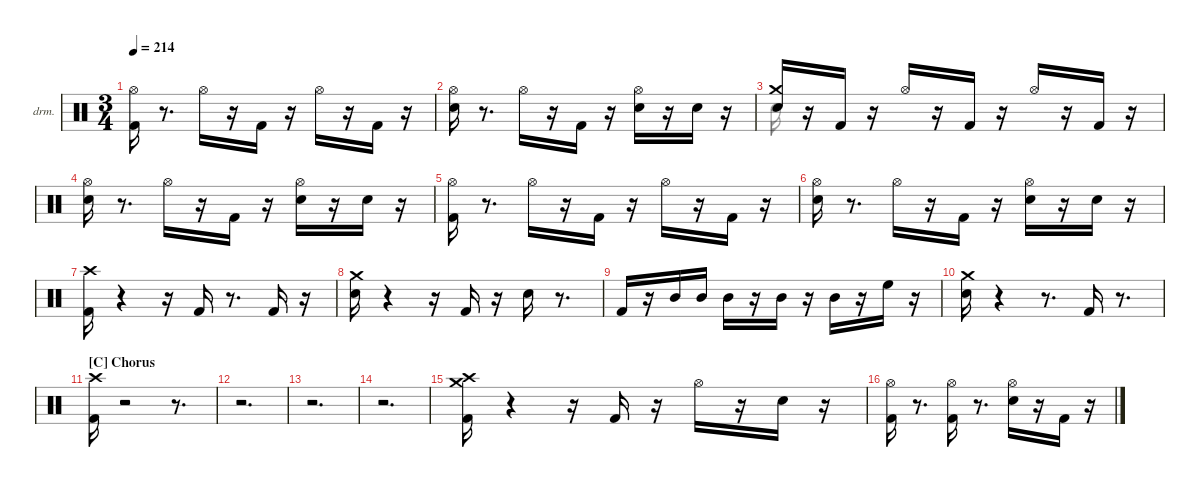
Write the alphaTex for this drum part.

\hideDynamics
\bracketExtendMode nobrackets
\firstSystemTrackNameOrientation horizontal
\track ("EZdrummer 3" "drm.") {instrument percussion}
\staff {score}
\articulation defaults
\voice
\ts (3 4)
\tempo 214
\clef neutral
\ks aminor
("Kick (hit) 2" "Hi-Hat (open)"{acc #}).16{dy ff} r.8{d} "Hi-Hat (open)"{acc #}.16{dy mf} r.16 "Kick (hit) 2".16{dy p} r.16 "Hi-Hat (open)"{acc #}.16{dy mp} r.16 "Kick (hit) 2".16{dy mf} r.16 |
("Snare (hit) 2" "Hi-Hat (open)"{acc #}).16 r.8{d} "Hi-Hat (open)"{acc #}.16{dy mp} r.16 "Kick (hit) 2".16{dy f} r.16 ("Snare (hit) 2" "Hi-Hat (open)"{acc #}).16{dy mp} r.16 "Snare (hit) 2".16{dy pp} r.16 |
("Snare (hit) 2" "Crash medium (hit)").16{dy f} r.16 "Kick (hit) 2".16 r.16 "Hi-Hat (open)"{acc #}.16{dy mf} r.16 "Kick (hit) 2".16{dy p} r.16 "Hi-Hat (open)"{acc #}.16{dy mp} r.16 "Kick (hit) 2".16{dy mf} r.16 |
("Snare (hit) 2" "Hi-Hat (open)"{acc #}).16{dy ff} r.8{d} "Hi-Hat (open)"{acc #}.16{dy mf} r.16 "Kick (hit) 2".16{dy f} r.16 ("Snare (hit) 2" "Hi-Hat (open)"{acc #}).16{dy mp} r.16 "Snare (hit) 2".16{dy pp} r.16 |
("Kick (hit) 2" "Hi-Hat (open)"{acc #}).16{dy ff} r.8{d} "Hi-Hat (open)"{acc #}.16{dy mf} r.16 "Kick (hit) 2".16{dy p} r.16 "Hi-Hat (open)"{acc #}.16{dy mp} r.16 "Kick (hit) 2".16{dy mf} r.16 |
("Snare (hit) 2" "Hi-Hat (open)"{acc #}).16 r.8{d} "Hi-Hat (open)"{acc #}.16{dy mp} r.16 "Kick (hit) 2".16{dy f} r.16 ("Snare (hit) 2" "Hi-Hat (open)"{acc #}).16{dy mp} r.16 "Snare (hit) 2".16{dy pp} r.16 |
("Kick (hit) 2" "Crash high (hit)"{acc #}).16{dy ff} r.4 r.16 "Kick (hit) 2".16{dy mf} r.8{d} "Kick (hit) 2".16{dy f} r.16 |
("Snare (hit) 2" "Crash medium (hit)").16 r.4 r.16 "Kick (hit) 2".16{dy mf} r.16 "Snare (hit) 2".16{dy fff} r.8{d} |
"Kick (hit) 2".16 r.16 "Mid Tom (hit)".16{dy f} "Mid Tom (hit)".16{dy mf} "Mid Tom (hit)".16{dy fff} r.16 "Mid Tom (hit)".16{dy ff} r.16 "Mid Tom (hit)".16{dy mf} r.16 "High Floor Tom (hit)".16{dy fff} r.16 |
("Snare (hit) 2" "Crash medium (hit)").16{dy f} r.4 r.8{d} "Kick (hit) 2".16{dy mf} r.8{d} |
\section ("C" "Chorus")
("Kick (hit) 2" "Crash high (hit)"{acc #}).16{dy fff} r.2 r.8{d} |
r.2{d} |
r.2{d} |
r.2{d} |
("Kick (hit) 2" "Crash high (hit)"{acc #} "Crash medium (hit)").16 r.4 r.16 "Kick (hit) 2".16{dy ff} r.16 "Hi-Hat (open)"{acc #}.16{dy f} r.16 "Snare (hit) 2".16{dy ff} r.16 |
("Kick (hit) 2" "Hi-Hat (open)"{acc #}).16{dy fff} r.8{d} ("Kick (hit) 2" "Hi-Hat (open)"{acc #}).16{dy f} r.8{d} ("Snare (hit) 2" "Hi-Hat (open)"{acc #}).16 r.16 "Kick (hit) 2".16{dy mp} r.16
\voice
\clef neutral
\ottava regular
\simile none
\ks aminor
|
|
"Snare (hit) 2".16 |
|
|
|
|
|
|
|
|
|
|
|
|
